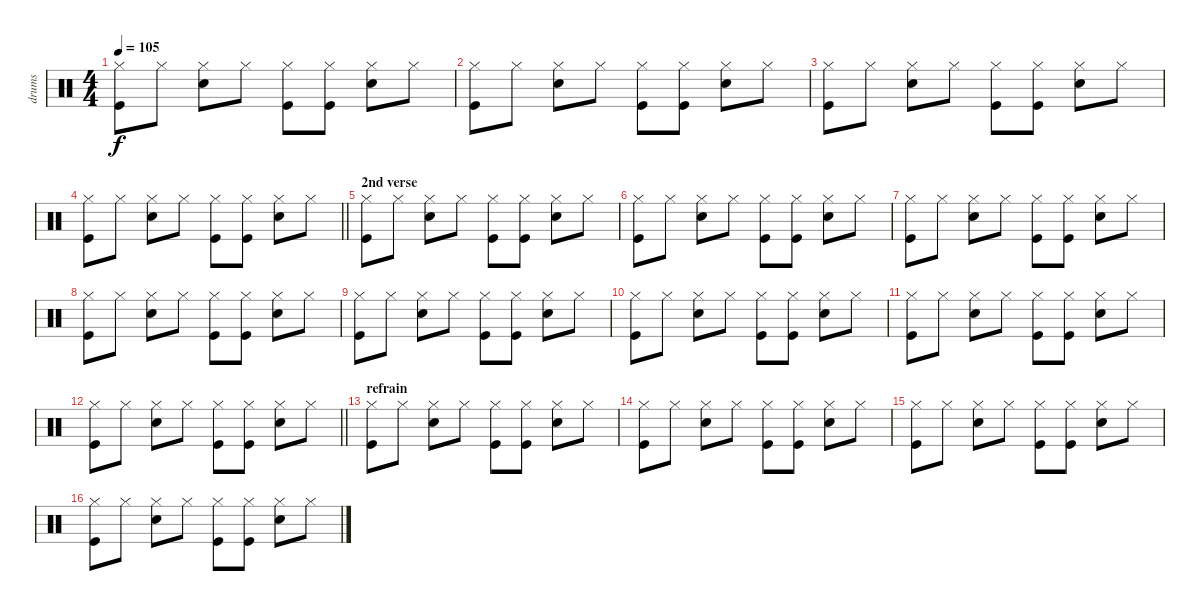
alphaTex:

\track ("drums" "drums") {instrument percussion}
\staff {score}
\articulation defaults
\ts (4 4)
\tempo 105
\clef neutral
\ks c
("Hi-Hat (closed)" "Kick (hit)").8{dy f} "Hi-Hat (closed)".8 ("Hi-Hat (closed)" "Snare (hit) 2").8 "Hi-Hat (closed)".8 ("Hi-Hat (closed)" "Kick (hit)").8 ("Hi-Hat (closed)" "Kick (hit)").8 ("Hi-Hat (closed)" "Snare (hit) 2").8 "Hi-Hat (closed)".8 |
("Hi-Hat (closed)" "Kick (hit)").8 "Hi-Hat (closed)".8 ("Hi-Hat (closed)" "Snare (hit) 2").8 "Hi-Hat (closed)".8 ("Hi-Hat (closed)" "Kick (hit)").8 ("Hi-Hat (closed)" "Kick (hit)").8 ("Hi-Hat (closed)" "Snare (hit) 2").8 "Hi-Hat (closed)".8 |
("Hi-Hat (closed)" "Kick (hit)").8 "Hi-Hat (closed)".8 ("Hi-Hat (closed)" "Snare (hit) 2").8 "Hi-Hat (closed)".8 ("Hi-Hat (closed)" "Kick (hit)").8 ("Hi-Hat (closed)" "Kick (hit)").8 ("Hi-Hat (closed)" "Snare (hit) 2").8 "Hi-Hat (closed)".8 |
\barLineRight lightlight
("Hi-Hat (closed)" "Kick (hit)").8 "Hi-Hat (closed)".8 ("Hi-Hat (closed)" "Snare (hit) 2").8 "Hi-Hat (closed)".8 ("Hi-Hat (closed)" "Kick (hit)").8 ("Hi-Hat (closed)" "Kick (hit)").8 ("Hi-Hat (closed)" "Snare (hit) 2").8 "Hi-Hat (closed)".8 |
\section ("" "2nd verse")
("Hi-Hat (closed)" "Kick (hit)").8 "Hi-Hat (closed)".8 ("Hi-Hat (closed)" "Snare (hit) 2").8 "Hi-Hat (closed)".8 ("Hi-Hat (closed)" "Kick (hit)").8 ("Hi-Hat (closed)" "Kick (hit)").8 ("Hi-Hat (closed)" "Snare (hit) 2").8 "Hi-Hat (closed)".8 |
("Hi-Hat (closed)" "Kick (hit)").8 "Hi-Hat (closed)".8 ("Hi-Hat (closed)" "Snare (hit) 2").8 "Hi-Hat (closed)".8 ("Hi-Hat (closed)" "Kick (hit)").8 ("Hi-Hat (closed)" "Kick (hit)").8 ("Hi-Hat (closed)" "Snare (hit) 2").8 "Hi-Hat (closed)".8 |
("Hi-Hat (closed)" "Kick (hit)").8 "Hi-Hat (closed)".8 ("Hi-Hat (closed)" "Snare (hit) 2").8 "Hi-Hat (closed)".8 ("Hi-Hat (closed)" "Kick (hit)").8 ("Hi-Hat (closed)" "Kick (hit)").8 ("Hi-Hat (closed)" "Snare (hit) 2").8 "Hi-Hat (closed)".8 |
("Hi-Hat (closed)" "Kick (hit)").8 "Hi-Hat (closed)".8 ("Hi-Hat (closed)" "Snare (hit) 2").8 "Hi-Hat (closed)".8 ("Hi-Hat (closed)" "Kick (hit)").8 ("Hi-Hat (closed)" "Kick (hit)").8 ("Hi-Hat (closed)" "Snare (hit) 2").8 "Hi-Hat (closed)".8 |
("Hi-Hat (closed)" "Kick (hit)").8 "Hi-Hat (closed)".8 ("Hi-Hat (closed)" "Snare (hit) 2").8 "Hi-Hat (closed)".8 ("Hi-Hat (closed)" "Kick (hit)").8 ("Hi-Hat (closed)" "Kick (hit)").8 ("Hi-Hat (closed)" "Snare (hit) 2").8 "Hi-Hat (closed)".8 |
("Hi-Hat (closed)" "Kick (hit)").8 "Hi-Hat (closed)".8 ("Hi-Hat (closed)" "Snare (hit) 2").8 "Hi-Hat (closed)".8 ("Hi-Hat (closed)" "Kick (hit)").8 ("Hi-Hat (closed)" "Kick (hit)").8 ("Hi-Hat (closed)" "Snare (hit) 2").8 "Hi-Hat (closed)".8 |
("Hi-Hat (closed)" "Kick (hit)").8 "Hi-Hat (closed)".8 ("Hi-Hat (closed)" "Snare (hit) 2").8 "Hi-Hat (closed)".8 ("Hi-Hat (closed)" "Kick (hit)").8 ("Hi-Hat (closed)" "Kick (hit)").8 ("Hi-Hat (closed)" "Snare (hit) 2").8 "Hi-Hat (closed)".8 |
\barLineRight lightlight
("Hi-Hat (closed)" "Kick (hit)").8 "Hi-Hat (closed)".8 ("Hi-Hat (closed)" "Snare (hit) 2").8 "Hi-Hat (closed)".8 ("Hi-Hat (closed)" "Kick (hit)").8 ("Hi-Hat (closed)" "Kick (hit)").8 ("Hi-Hat (closed)" "Snare (hit) 2").8 "Hi-Hat (closed)".8 |
\section ("" "refrain")
("Hi-Hat (closed)" "Kick (hit)").8 "Hi-Hat (closed)".8 ("Hi-Hat (closed)" "Snare (hit) 2").8 "Hi-Hat (closed)".8 ("Hi-Hat (closed)" "Kick (hit)").8 ("Hi-Hat (closed)" "Kick (hit)").8 ("Hi-Hat (closed)" "Snare (hit) 2").8 "Hi-Hat (closed)".8 |
("Hi-Hat (closed)" "Kick (hit)").8 "Hi-Hat (closed)".8 ("Hi-Hat (closed)" "Snare (hit) 2").8 "Hi-Hat (closed)".8 ("Hi-Hat (closed)" "Kick (hit)").8 ("Hi-Hat (closed)" "Kick (hit)").8 ("Hi-Hat (closed)" "Snare (hit) 2").8 "Hi-Hat (closed)".8 |
("Hi-Hat (closed)" "Kick (hit)").8 "Hi-Hat (closed)".8 ("Hi-Hat (closed)" "Snare (hit) 2").8 "Hi-Hat (closed)".8 ("Hi-Hat (closed)" "Kick (hit)").8 ("Hi-Hat (closed)" "Kick (hit)").8 ("Hi-Hat (closed)" "Snare (hit) 2").8 "Hi-Hat (closed)".8 |
("Hi-Hat (closed)" "Kick (hit)").8 "Hi-Hat (closed)".8 ("Hi-Hat (closed)" "Snare (hit) 2").8 "Hi-Hat (closed)".8 ("Hi-Hat (closed)" "Kick (hit)").8 ("Hi-Hat (closed)" "Kick (hit)").8 ("Hi-Hat (closed)" "Snare (hit) 2").8 "Hi-Hat (closed)".8
